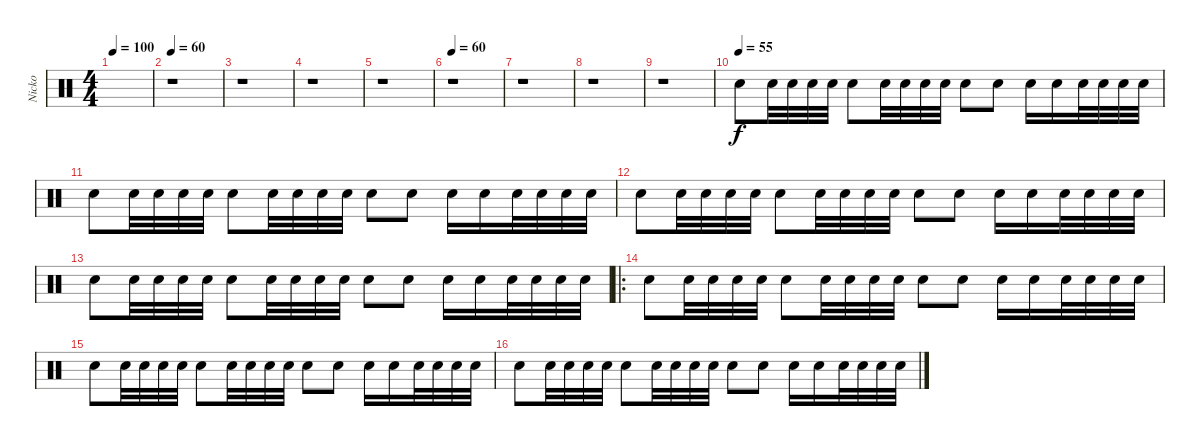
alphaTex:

\track ("Nicko" "Nicko") {instrument percussion}
\staff {score}
\articulation defaults
\ts (4 4)
\tempo 100
\clef neutral
\ks c
|
\tempo 60
r.1 |
r.1 |
r.1 |
r.1 |
\tempo 60
r.1 |
r.1 |
r.1 |
r.1 |
\tempo (55)
"Snare (hit) 2".8{volume 10} "Snare (hit) 2".32 "Snare (hit) 2".32 "Snare (hit) 2".32 "Snare (hit) 2".32 "Snare (hit) 2".8 "Snare (hit) 2".32 "Snare (hit) 2".32 "Snare (hit) 2".32 "Snare (hit) 2".32 "Snare (hit) 2".8 "Snare (hit) 2".8 "Snare (hit) 2".16 "Snare (hit) 2".16 "Snare (hit) 2".32 "Snare (hit) 2".32 "Snare (hit) 2".32 "Snare (hit) 2".32 |
"Snare (hit) 2".8 "Snare (hit) 2".32 "Snare (hit) 2".32 "Snare (hit) 2".32 "Snare (hit) 2".32 "Snare (hit) 2".8 "Snare (hit) 2".32 "Snare (hit) 2".32 "Snare (hit) 2".32 "Snare (hit) 2".32 "Snare (hit) 2".8 "Snare (hit) 2".8 "Snare (hit) 2".16 "Snare (hit) 2".16 "Snare (hit) 2".32 "Snare (hit) 2".32 "Snare (hit) 2".32 "Snare (hit) 2".32 |
"Snare (hit) 2".8 "Snare (hit) 2".32 "Snare (hit) 2".32 "Snare (hit) 2".32 "Snare (hit) 2".32 "Snare (hit) 2".8 "Snare (hit) 2".32 "Snare (hit) 2".32 "Snare (hit) 2".32 "Snare (hit) 2".32 "Snare (hit) 2".8 "Snare (hit) 2".8 "Snare (hit) 2".16 "Snare (hit) 2".16 "Snare (hit) 2".32 "Snare (hit) 2".32 "Snare (hit) 2".32 "Snare (hit) 2".32 |
"Snare (hit) 2".8 "Snare (hit) 2".32 "Snare (hit) 2".32 "Snare (hit) 2".32 "Snare (hit) 2".32 "Snare (hit) 2".8 "Snare (hit) 2".32 "Snare (hit) 2".32 "Snare (hit) 2".32 "Snare (hit) 2".32 "Snare (hit) 2".8 "Snare (hit) 2".8 "Snare (hit) 2".16 "Snare (hit) 2".16 "Snare (hit) 2".32 "Snare (hit) 2".32 "Snare (hit) 2".32 "Snare (hit) 2".32 |
\ro "Snare (hit) 2".8 "Snare (hit) 2".32 "Snare (hit) 2".32 "Snare (hit) 2".32 "Snare (hit) 2".32 "Snare (hit) 2".8 "Snare (hit) 2".32 "Snare (hit) 2".32 "Snare (hit) 2".32 "Snare (hit) 2".32 "Snare (hit) 2".8 "Snare (hit) 2".8 "Snare (hit) 2".16 "Snare (hit) 2".16 "Snare (hit) 2".32 "Snare (hit) 2".32 "Snare (hit) 2".32 "Snare (hit) 2".32
|
"Snare (hit) 2".8 "Snare (hit) 2".32 "Snare (hit) 2".32 "Snare (hit) 2".32 "Snare (hit) 2".32 "Snare (hit) 2".8 "Snare (hit) 2".32 "Snare (hit) 2".32 "Snare (hit) 2".32 "Snare (hit) 2".32 "Snare (hit) 2".8 "Snare (hit) 2".8 "Snare (hit) 2".16 "Snare (hit) 2".16 "Snare (hit) 2".32 "Snare (hit) 2".32 "Snare (hit) 2".32 "Snare (hit) 2".32 |
"Snare (hit) 2".8 "Snare (hit) 2".32 "Snare (hit) 2".32 "Snare (hit) 2".32 "Snare (hit) 2".32 "Snare (hit) 2".8 "Snare (hit) 2".32 "Snare (hit) 2".32 "Snare (hit) 2".32 "Snare (hit) 2".32 "Snare (hit) 2".8 "Snare (hit) 2".8 "Snare (hit) 2".16 "Snare (hit) 2".16 "Snare (hit) 2".32 "Snare (hit) 2".32 "Snare (hit) 2".32 "Snare (hit) 2".32
